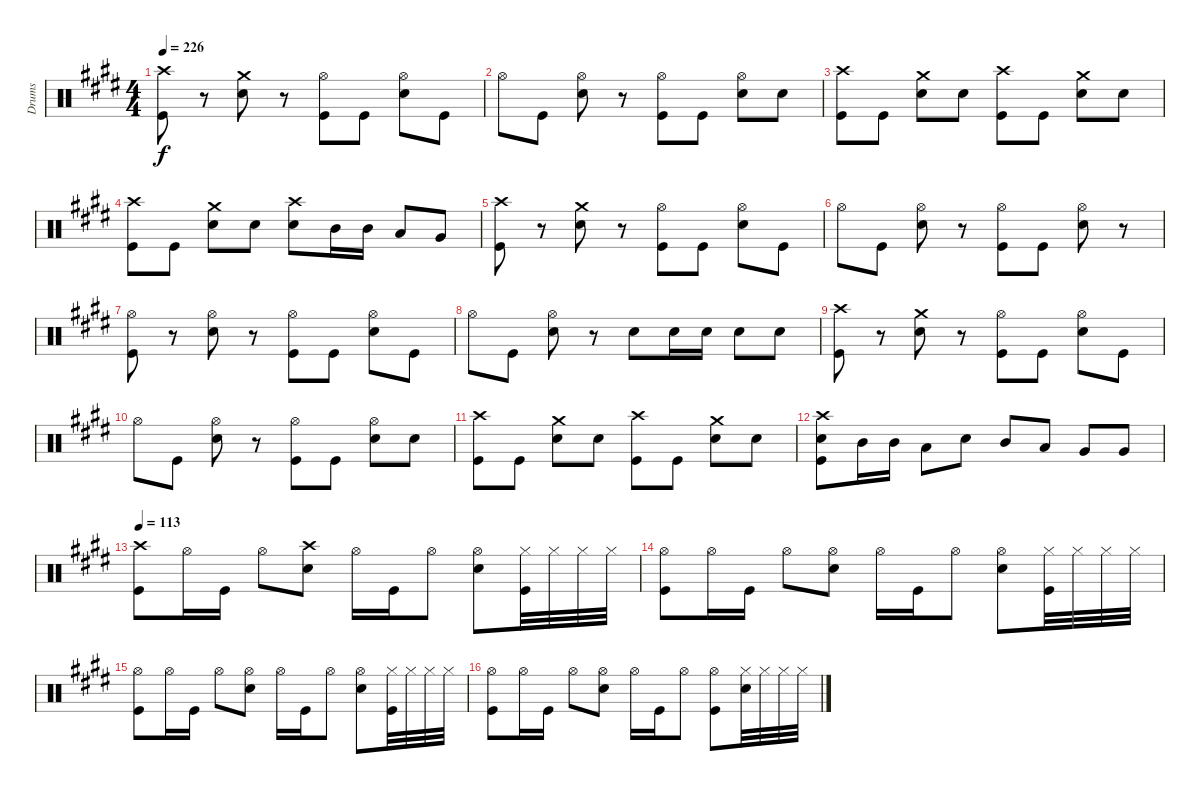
\track ("Drums" "Drums") {instrument percussion}
\staff {score}
\articulation defaults
\ts (4 4)
\tempo 226
\clef neutral
\ks e
("Crash high (hit)" "Kick (hit)").8{dy f} r.8 ("Crash medium (hit)" "Snare (hit) 2").8 r.8 ("Hi-Hat (open)" "Kick (hit)").8 "Kick (hit)".8 ("Hi-Hat (open)" "Snare (hit) 2").8 "Kick (hit)".8 |
"Hi-Hat (open)".8 "Kick (hit)".8 ("Hi-Hat (open)" "Snare (hit) 2").8 r.8 ("Hi-Hat (open)" "Kick (hit)").8 "Kick (hit)".8 ("Hi-Hat (open)" "Snare (hit) 2").8 "Snare (hit) 2".8 |
("Crash high (hit)" "Kick (hit)").8 "Kick (hit)".8 ("Crash medium (hit)" "Snare (hit) 2").8 "Snare (hit) 2".8 ("Crash high (hit)" "Kick (hit)").8 "Kick (hit)".8 ("Crash medium (hit)" "Snare (hit) 2").8 "Snare (hit) 2".8 |
("Crash high (hit)" "Kick (hit)").8 "Kick (hit)".8 ("Crash medium (hit)" "Snare (hit) 2").8 "Snare (hit) 2".8 ("Crash high (hit)" "Snare (hit) 2").8 "Mid Tom (hit)".16 "Mid Tom (hit)".16 "Low Tom (hit)".8 "Very Low Tom (hit)".8 |
("Crash high (hit)" "Kick (hit)").8 r.8 ("Crash medium (hit)" "Snare (hit) 2").8 r.8 ("Hi-Hat (open)" "Kick (hit)").8 "Kick (hit)".8 ("Hi-Hat (open)" "Snare (hit) 2").8 "Kick (hit)".8 |
"Hi-Hat (open)".8 "Kick (hit)".8 ("Hi-Hat (open)" "Snare (hit) 2").8 r.8 ("Hi-Hat (open)" "Kick (hit)").8 "Kick (hit)".8 ("Hi-Hat (open)" "Snare (hit) 2").8 r.8 |
("Hi-Hat (open)" "Kick (hit)").8 r.8 ("Hi-Hat (open)" "Snare (hit) 2").8 r.8 ("Hi-Hat (open)" "Kick (hit)").8 "Kick (hit)".8 ("Hi-Hat (open)" "Snare (hit) 2").8 "Kick (hit)".8 |
"Hi-Hat (open)".8 "Kick (hit)".8 ("Hi-Hat (open)" "Snare (hit) 2").8 r.8 "Snare (hit) 2".8 "Snare (hit) 2".16 "Snare (hit) 2".16 "Snare (hit) 2".8 "Snare (hit) 2".8 |
("Crash high (hit)" "Kick (hit)").8 r.8 ("Crash medium (hit)" "Snare (hit) 2").8 r.8 ("Hi-Hat (open)" "Kick (hit)").8 "Kick (hit)".8 ("Hi-Hat (open)" "Snare (hit) 2").8 "Kick (hit)".8 |
"Hi-Hat (open)".8 "Kick (hit)".8 ("Hi-Hat (open)" "Snare (hit) 2").8 r.8 ("Hi-Hat (open)" "Kick (hit)").8 "Kick (hit)".8 ("Hi-Hat (open)" "Snare (hit) 2").8 "Snare (hit) 2".8 |
("Crash high (hit)" "Kick (hit)").8 "Kick (hit)".8 ("Crash medium (hit)" "Snare (hit) 2").8 "Snare (hit) 2".8 ("Crash high (hit)" "Kick (hit)").8 "Kick (hit)".8 ("Crash medium (hit)" "Snare (hit) 2").8 "Snare (hit) 2".8 |
("Crash high (hit)" "Snare (hit) 2" "Kick (hit)").8 "Mid Tom (hit)".16 "Mid Tom (hit)".16 "Low Tom (hit)".8 "Snare (hit) 2".8 "Mid Tom (hit)".8 "Low Tom (hit)".8 "Very Low Tom (hit)".8 "Very Low Tom (hit)".8 |
\tempo 113
("Crash high (hit)" "Kick (hit)").8 "Hi-Hat (open)".16 "Kick (hit)".16 "Hi-Hat (open)".8 ("Crash high (hit)" "Snare (hit) 2").8 "Hi-Hat (open)".16 "Kick (hit)".16 "Hi-Hat (open)".8 ("Hi-Hat (open)" "Snare (hit) 2").8 ("Hi-Hat (closed)" "Kick (hit)").32 "Hi-Hat (closed)".32 "Hi-Hat (closed)".32 "Hi-Hat (closed)".32 |
("Hi-Hat (open)" "Kick (hit)").8 "Hi-Hat (open)".16 "Kick (hit)".16 "Hi-Hat (open)".8 ("Hi-Hat (open)" "Snare (hit) 2").8 "Hi-Hat (open)".16 "Kick (hit)".16 "Hi-Hat (open)".8 ("Hi-Hat (open)" "Snare (hit) 2").8 ("Hi-Hat (closed)" "Kick (hit)").32 "Hi-Hat (closed)".32 "Hi-Hat (closed)".32 "Hi-Hat (closed)".32 |
("Hi-Hat (open)" "Kick (hit)").8 "Hi-Hat (open)".16 "Kick (hit)".16 "Hi-Hat (open)".8 ("Hi-Hat (open)" "Snare (hit) 2").8 "Hi-Hat (open)".16 "Kick (hit)".16 "Hi-Hat (open)".8 ("Hi-Hat (open)" "Snare (hit) 2").8 ("Hi-Hat (closed)" "Kick (hit)").32 "Hi-Hat (closed)".32 "Hi-Hat (closed)".32 "Hi-Hat (closed)".32 |
("Hi-Hat (open)" "Kick (hit)").8 "Hi-Hat (open)".16 "Kick (hit)".16 "Hi-Hat (open)".8 ("Hi-Hat (open)" "Snare (hit) 2").8 "Hi-Hat (open)".16 "Kick (hit)".16 "Hi-Hat (open)".8 ("Hi-Hat (open)" "Kick (hit)").8 ("Hi-Hat (closed)" "Snare (hit) 2").32 "Hi-Hat (closed)".32 "Hi-Hat (closed)".32 "Hi-Hat (closed)".32
